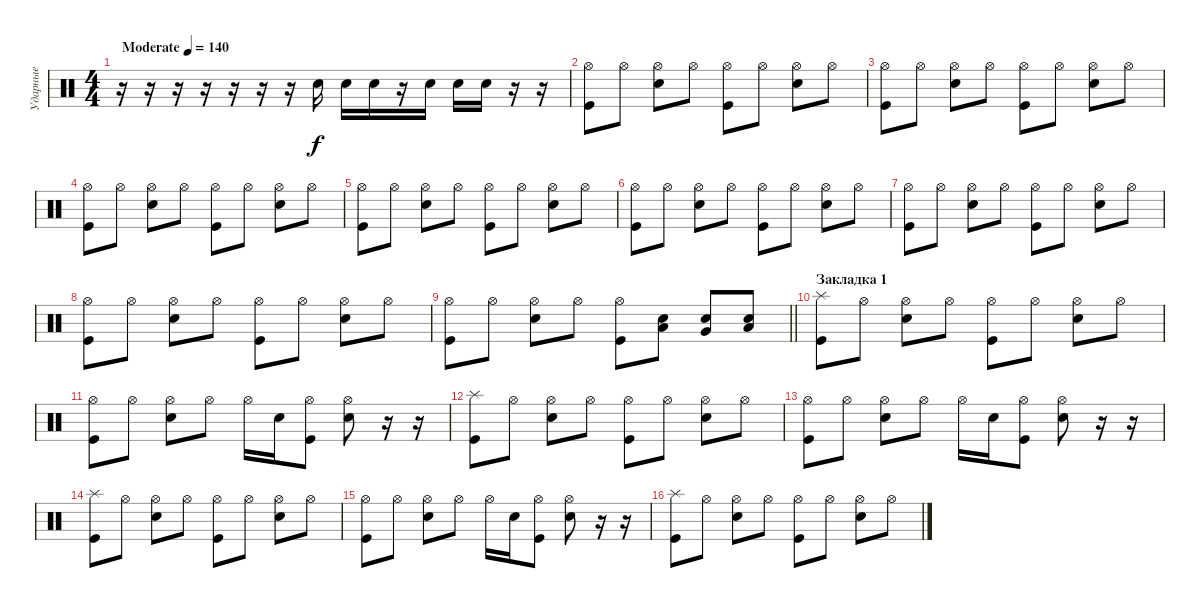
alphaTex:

\track ("Ударные" "Ударные") {instrument percussion}
\staff {score}
\articulation defaults
\ts (4 4)
\tempo (140 "Moderate")
\clef neutral
\ks c
r.16{dy f} r.16 r.16 r.16 r.16 r.16 r.16 "Snare (hit) 2".16 "Snare (hit) 2".16 "Snare (hit) 2".16 r.16 "Snare (hit) 2".16 "Snare (hit) 2".16 "Snare (hit) 2".16 r.16 r.16 |
("Hi-Hat (open)" "Kick (hit)").8 "Hi-Hat (open)".8 ("Hi-Hat (open)" "Snare (hit) 2").8 "Hi-Hat (open)".8 ("Hi-Hat (open)" "Kick (hit)").8 "Hi-Hat (open)".8 ("Hi-Hat (open)" "Snare (hit) 2").8 "Hi-Hat (open)".8 |
("Hi-Hat (open)" "Kick (hit)").8 "Hi-Hat (open)".8 ("Hi-Hat (open)" "Snare (hit) 2").8 "Hi-Hat (open)".8 ("Hi-Hat (open)" "Kick (hit)").8 "Hi-Hat (open)".8 ("Hi-Hat (open)" "Snare (hit) 2").8 "Hi-Hat (open)".8 |
("Hi-Hat (open)" "Kick (hit)").8 "Hi-Hat (open)".8 ("Hi-Hat (open)" "Snare (hit) 2").8 "Hi-Hat (open)".8 ("Hi-Hat (open)" "Kick (hit)").8 "Hi-Hat (open)".8 ("Hi-Hat (open)" "Snare (hit) 2").8 "Hi-Hat (open)".8 |
("Hi-Hat (open)" "Kick (hit)").8 "Hi-Hat (open)".8 ("Hi-Hat (open)" "Snare (hit) 2").8 "Hi-Hat (open)".8 ("Hi-Hat (open)" "Kick (hit)").8 "Hi-Hat (open)".8 ("Hi-Hat (open)" "Snare (hit) 2").8 "Hi-Hat (open)".8 |
("Hi-Hat (open)" "Kick (hit)").8 "Hi-Hat (open)".8 ("Hi-Hat (open)" "Snare (hit) 2").8 "Hi-Hat (open)".8 ("Hi-Hat (open)" "Kick (hit)").8 "Hi-Hat (open)".8 ("Hi-Hat (open)" "Snare (hit) 2").8 "Hi-Hat (open)".8 |
("Hi-Hat (open)" "Kick (hit)").8 "Hi-Hat (open)".8 ("Hi-Hat (open)" "Snare (hit) 2").8 "Hi-Hat (open)".8 ("Hi-Hat (open)" "Kick (hit)").8 "Hi-Hat (open)".8 ("Hi-Hat (open)" "Snare (hit) 2").8 "Hi-Hat (open)".8 |
("Hi-Hat (open)" "Kick (hit)").8 "Hi-Hat (open)".8 ("Hi-Hat (open)" "Snare (hit) 2").8 "Hi-Hat (open)".8 ("Hi-Hat (open)" "Kick (hit)").8 "Hi-Hat (open)".8 ("Hi-Hat (open)" "Snare (hit) 2").8 "Hi-Hat (open)".8 |
\barLineRight lightlight
("Hi-Hat (open)" "Kick (hit)").8 "Hi-Hat (open)".8 ("Hi-Hat (open)" "Snare (hit) 2").8 "Hi-Hat (open)".8 ("Hi-Hat (open)" "Kick (hit)").8 ("Snare (hit) 2" "Low Floor Tom (hit)").8 ("Snare (hit) 2" "Very Low Tom (hit)").8 ("Snare (hit) 2" "Low Floor Tom (hit)").8 |
\section ("" "Закладка 1")
("Splash (hit)" "Kick (hit)").8 "Hi-Hat (open)".8 ("Hi-Hat (open)" "Snare (hit) 2").8 "Hi-Hat (open)".8 ("Hi-Hat (open)" "Kick (hit)").8 "Hi-Hat (open)".8 ("Hi-Hat (open)" "Snare (hit) 2").8 "Hi-Hat (open)".8 |
("Hi-Hat (open)" "Kick (hit)").8 "Hi-Hat (open)".8 ("Hi-Hat (open)" "Snare (hit) 2").8 "Hi-Hat (open)".8 "Hi-Hat (open)".16 "Snare (hit) 2".16 ("Hi-Hat (open)" "Kick (hit)").8 ("Hi-Hat (open)" "Snare (hit) 2").8 r.16 r.16 |
("Splash (hit)" "Kick (hit)").8 "Hi-Hat (open)".8 ("Hi-Hat (open)" "Snare (hit) 2").8 "Hi-Hat (open)".8 ("Hi-Hat (open)" "Kick (hit)").8 "Hi-Hat (open)".8 ("Hi-Hat (open)" "Snare (hit) 2").8 "Hi-Hat (open)".8 |
("Hi-Hat (open)" "Kick (hit)").8 "Hi-Hat (open)".8 ("Hi-Hat (open)" "Snare (hit) 2").8 "Hi-Hat (open)".8 "Hi-Hat (open)".16 "Snare (hit) 2".16 ("Hi-Hat (open)" "Kick (hit)").8 ("Hi-Hat (open)" "Snare (hit) 2").8 r.16 r.16 |
("Splash (hit)" "Kick (hit)").8 "Hi-Hat (open)".8 ("Hi-Hat (open)" "Snare (hit) 2").8 "Hi-Hat (open)".8 ("Hi-Hat (open)" "Kick (hit)").8 "Hi-Hat (open)".8 ("Hi-Hat (open)" "Snare (hit) 2").8 "Hi-Hat (open)".8 |
("Hi-Hat (open)" "Kick (hit)").8 "Hi-Hat (open)".8 ("Hi-Hat (open)" "Snare (hit) 2").8 "Hi-Hat (open)".8 "Hi-Hat (open)".16 "Snare (hit) 2".16 ("Hi-Hat (open)" "Kick (hit)").8 ("Hi-Hat (open)" "Snare (hit) 2").8 r.16 r.16 |
("Splash (hit)" "Kick (hit)").8 "Hi-Hat (open)".8 ("Hi-Hat (open)" "Snare (hit) 2").8 "Hi-Hat (open)".8 ("Hi-Hat (open)" "Kick (hit)").8 "Hi-Hat (open)".8 ("Hi-Hat (open)" "Snare (hit) 2").8 "Hi-Hat (open)".8
